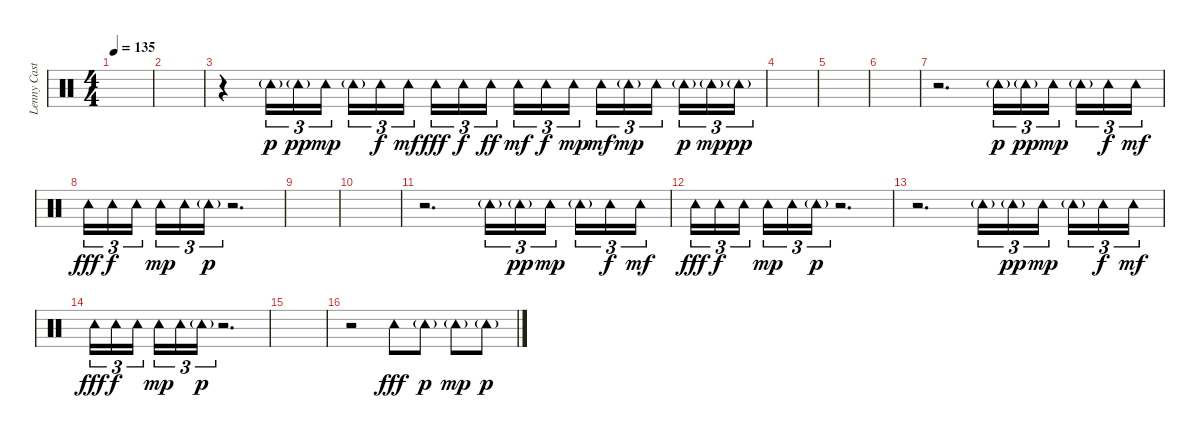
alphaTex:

\track ("Lenny Castro - Percussion" "Lenny Cast") {instrument percussion}
\staff {score}
\articulation defaults
\ts (4 4)
\tempo 135
\clef neutral
\ks c
|
|
r.4 "Tambourine (hit)"{g}.16{tu (3 2) dy p} "Tambourine (hit)"{g}.16{tu (3 2) dy pp} "Tambourine (hit)".16{tu (3 2) dy mp beam splitsecondary} "Tambourine (hit)"{g}.16{tu (3 2)} "Tambourine (hit)".16{tu (3 2) dy f} "Tambourine (hit)".16{tu (3 2) dy mf} "Tambourine (hit)".16{tu (3 2) dy fff} "Tambourine (hit)".16{tu (3 2) dy f} "Tambourine (hit)".16{tu (3 2) dy ff beam splitsecondary} "Tambourine (hit)".16{tu (3 2) dy mf} "Tambourine (hit)".16{tu (3 2) dy f} "Tambourine (hit)".16{tu (3 2) dy mp} "Tambourine (hit)".16{tu (3 2) dy mf} "Tambourine (hit)"{g}.16{tu (3 2) dy mp} "Tambourine (hit)".16{tu (3 2) beam splitsecondary} "Tambourine (hit)"{g}.16{tu (3 2) dy p} "Tambourine (hit)"{g}.16{tu (3 2) dy mp} "Tambourine (hit)"{g}.16{tu (3 2) dy pp} |
|
|
|
r.2{d} "Tambourine (hit)"{g}.16{tu (3 2) dy p} "Tambourine (hit)"{g}.16{tu (3 2) dy pp} "Tambourine (hit)".16{tu (3 2) dy mp beam splitsecondary} "Tambourine (hit)"{g}.16{tu (3 2)} "Tambourine (hit)".16{tu (3 2) dy f} "Tambourine (hit)".16{tu (3 2) dy mf} |
"Tambourine (hit)".16{tu (3 2) dy fff} "Tambourine (hit)".16{tu (3 2) dy f} "Tambourine (hit)".16{tu (3 2) beam splitsecondary} "Tambourine (hit)".16{tu (3 2) dy mp} "Tambourine (hit)".16{tu (3 2)} "Tambourine (hit)"{g}.16{tu (3 2) dy p} r.2{d} |
|
|
r.2{d} "Tambourine (hit)"{g}.16{tu (3 2)} "Tambourine (hit)"{g}.16{tu (3 2) dy pp} "Tambourine (hit)".16{tu (3 2) dy mp beam splitsecondary} "Tambourine (hit)"{g}.16{tu (3 2)} "Tambourine (hit)".16{tu (3 2) dy f} "Tambourine (hit)".16{tu (3 2) dy mf} |
"Tambourine (hit)".16{tu (3 2) dy fff} "Tambourine (hit)".16{tu (3 2) dy f} "Tambourine (hit)".16{tu (3 2) beam splitsecondary} "Tambourine (hit)".16{tu (3 2) dy mp} "Tambourine (hit)".16{tu (3 2)} "Tambourine (hit)"{g}.16{tu (3 2) dy p} r.2{d} |
r.2{d} "Tambourine (hit)"{g}.16{tu (3 2)} "Tambourine (hit)"{g}.16{tu (3 2) dy pp} "Tambourine (hit)".16{tu (3 2) dy mp beam splitsecondary} "Tambourine (hit)"{g}.16{tu (3 2)} "Tambourine (hit)".16{tu (3 2) dy f} "Tambourine (hit)".16{tu (3 2) dy mf} |
"Tambourine (hit)".16{tu (3 2) dy fff} "Tambourine (hit)".16{tu (3 2) dy f} "Tambourine (hit)".16{tu (3 2) beam splitsecondary} "Tambourine (hit)".16{tu (3 2) dy mp} "Tambourine (hit)".16{tu (3 2)} "Tambourine (hit)"{g}.16{tu (3 2) dy p} r.2{d} |
|
r.2 "Tambourine (hit)".8{dy fff} "Tambourine (hit)"{g}.8{dy p} "Tambourine (hit)"{g}.8{dy mp} "Tambourine (hit)"{g}.8{dy p}
